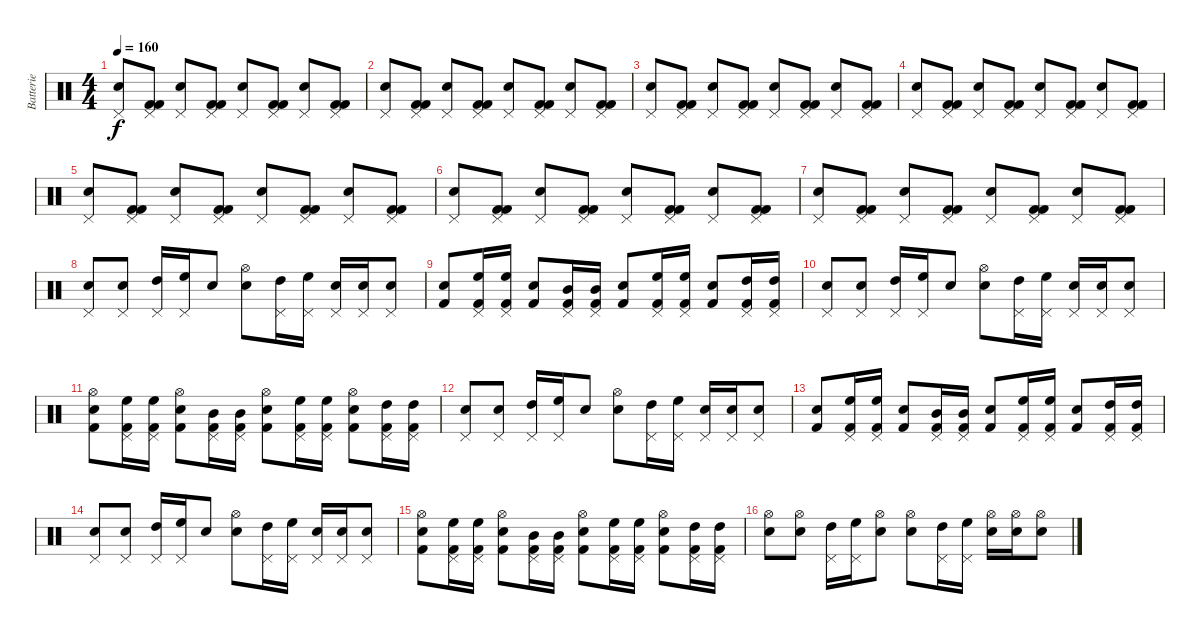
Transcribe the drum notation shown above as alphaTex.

\track ("Batterie" "Batterie") {instrument percussion}
\staff {score}
\articulation defaults
\ts (4 4)
\tempo 160
\clef neutral
\ks c
("Pedal Hi-Hat (hit)" "Snare (hit) 2").8{dy f} ("Kick (hit) 2" "Pedal Hi-Hat (hit)" "Kick (hit) 2").8 ("Pedal Hi-Hat (hit)" "Snare (hit) 2").8 ("Kick (hit) 2" "Pedal Hi-Hat (hit)" "Kick (hit) 2").8 ("Pedal Hi-Hat (hit)" "Snare (hit) 2").8 ("Kick (hit) 2" "Pedal Hi-Hat (hit)" "Kick (hit) 2").8 ("Pedal Hi-Hat (hit)" "Snare (hit) 2").8 ("Kick (hit) 2" "Pedal Hi-Hat (hit)" "Kick (hit) 2").8 |
("Pedal Hi-Hat (hit)" "Snare (hit) 2").8 ("Kick (hit) 2" "Pedal Hi-Hat (hit)" "Kick (hit) 2").8 ("Pedal Hi-Hat (hit)" "Snare (hit) 2").8 ("Kick (hit) 2" "Pedal Hi-Hat (hit)" "Kick (hit) 2").8 ("Pedal Hi-Hat (hit)" "Snare (hit) 2").8 ("Kick (hit) 2" "Pedal Hi-Hat (hit)" "Kick (hit) 2").8 ("Pedal Hi-Hat (hit)" "Snare (hit) 2").8 ("Kick (hit) 2" "Pedal Hi-Hat (hit)" "Kick (hit) 2").8 |
("Pedal Hi-Hat (hit)" "Snare (hit) 2").8 ("Kick (hit) 2" "Pedal Hi-Hat (hit)" "Kick (hit) 2").8 ("Pedal Hi-Hat (hit)" "Snare (hit) 2").8 ("Kick (hit) 2" "Pedal Hi-Hat (hit)" "Kick (hit) 2").8 ("Pedal Hi-Hat (hit)" "Snare (hit) 2").8 ("Kick (hit) 2" "Pedal Hi-Hat (hit)" "Kick (hit) 2").8 ("Pedal Hi-Hat (hit)" "Snare (hit) 2").8 ("Kick (hit) 2" "Pedal Hi-Hat (hit)" "Kick (hit) 2").8 |
("Pedal Hi-Hat (hit)" "Snare (hit) 2").8 ("Kick (hit) 2" "Pedal Hi-Hat (hit)" "Kick (hit) 2").8 ("Pedal Hi-Hat (hit)" "Snare (hit) 2").8 ("Kick (hit) 2" "Pedal Hi-Hat (hit)" "Kick (hit) 2").8 ("Pedal Hi-Hat (hit)" "Snare (hit) 2").8 ("Kick (hit) 2" "Pedal Hi-Hat (hit)" "Kick (hit) 2").8 ("Pedal Hi-Hat (hit)" "Snare (hit) 2").8 ("Kick (hit) 2" "Pedal Hi-Hat (hit)" "Kick (hit) 2").8 |
("Pedal Hi-Hat (hit)" "Snare (hit) 2").8 ("Kick (hit) 2" "Pedal Hi-Hat (hit)" "Kick (hit) 2").8 ("Pedal Hi-Hat (hit)" "Snare (hit) 2").8 ("Kick (hit) 2" "Pedal Hi-Hat (hit)" "Kick (hit) 2").8 ("Pedal Hi-Hat (hit)" "Snare (hit) 2").8 ("Kick (hit) 2" "Pedal Hi-Hat (hit)" "Kick (hit) 2").8 ("Pedal Hi-Hat (hit)" "Snare (hit) 2").8 ("Kick (hit) 2" "Pedal Hi-Hat (hit)" "Kick (hit) 2").8 |
("Pedal Hi-Hat (hit)" "Snare (hit) 2").8 ("Kick (hit) 2" "Pedal Hi-Hat (hit)" "Kick (hit) 2").8 ("Pedal Hi-Hat (hit)" "Snare (hit) 2").8 ("Kick (hit) 2" "Pedal Hi-Hat (hit)" "Kick (hit) 2").8 ("Pedal Hi-Hat (hit)" "Snare (hit) 2").8 ("Kick (hit) 2" "Pedal Hi-Hat (hit)" "Kick (hit) 2").8 ("Pedal Hi-Hat (hit)" "Snare (hit) 2").8 ("Kick (hit) 2" "Pedal Hi-Hat (hit)" "Kick (hit) 2").8 |
("Pedal Hi-Hat (hit)" "Snare (hit) 2").8 ("Kick (hit) 2" "Pedal Hi-Hat (hit)" "Kick (hit) 2").8 ("Pedal Hi-Hat (hit)" "Snare (hit) 2").8 ("Kick (hit) 2" "Pedal Hi-Hat (hit)" "Kick (hit) 2").8 ("Pedal Hi-Hat (hit)" "Snare (hit) 2").8 ("Kick (hit) 2" "Pedal Hi-Hat (hit)" "Kick (hit) 2").8 ("Pedal Hi-Hat (hit)" "Snare (hit) 2").8 ("Kick (hit) 2" "Pedal Hi-Hat (hit)" "Kick (hit) 2").8 |
("Pedal Hi-Hat (hit)" "Snare (hit) 2").8 ("Pedal Hi-Hat (hit)" "Snare (hit) 2").8 ("Pedal Hi-Hat (hit)" "High Tom (hit)").16 ("Pedal Hi-Hat (hit)" "High Floor Tom (hit)").16 "Snare (hit) 2".8 ("Hi-Hat (open)" "Snare (hit) 2").8 ("Pedal Hi-Hat (hit)" "High Tom (hit)").16 ("Pedal Hi-Hat (hit)" "High Floor Tom (hit)").16 ("Pedal Hi-Hat (hit)" "Snare (hit) 2").16 ("Pedal Hi-Hat (hit)" "Snare (hit) 2").16 ("Pedal Hi-Hat (hit)" "Snare (hit) 2").8 |
("Snare (hit) 2" "Kick (hit) 2").8 ("Pedal Hi-Hat (hit)" "High Floor Tom (hit)" "Kick (hit) 2").16 ("Pedal Hi-Hat (hit)" "High Floor Tom (hit)" "Kick (hit) 2").16 ("Snare (hit) 2" "Kick (hit) 2").8 ("Pedal Hi-Hat (hit)" "Mid Tom (hit)" "Kick (hit) 2").16 ("Pedal Hi-Hat (hit)" "Mid Tom (hit)" "Kick (hit) 2").16 ("Snare (hit) 2" "Kick (hit) 2").8 ("Pedal Hi-Hat (hit)" "High Floor Tom (hit)" "Kick (hit) 2").16 ("Pedal Hi-Hat (hit)" "High Floor Tom (hit)" "Kick (hit) 2").16 ("Snare (hit) 2" "Kick (hit) 2").8 ("Pedal Hi-Hat (hit)" "High Tom (hit)" "Kick (hit) 2").16 ("Pedal Hi-Hat (hit)" "High Tom (hit)" "Kick (hit) 2").16 |
("Pedal Hi-Hat (hit)" "Snare (hit) 2").8 ("Pedal Hi-Hat (hit)" "Snare (hit) 2").8 ("Pedal Hi-Hat (hit)" "High Tom (hit)").16 ("Pedal Hi-Hat (hit)" "High Floor Tom (hit)").16 "Snare (hit) 2".8 ("Hi-Hat (open)" "Snare (hit) 2").8 ("Pedal Hi-Hat (hit)" "High Tom (hit)").16 ("Pedal Hi-Hat (hit)" "High Floor Tom (hit)").16 ("Pedal Hi-Hat (hit)" "Snare (hit) 2").16 ("Pedal Hi-Hat (hit)" "Snare (hit) 2").16 ("Pedal Hi-Hat (hit)" "Snare (hit) 2").8 |
("Hi-Hat (open)" "Snare (hit) 2" "Kick (hit) 2").8 ("Pedal Hi-Hat (hit)" "High Floor Tom (hit)" "Kick (hit) 2").16 ("Pedal Hi-Hat (hit)" "High Floor Tom (hit)" "Kick (hit) 2").16 ("Hi-Hat (open)" "Snare (hit) 2" "Kick (hit) 2").8 ("Pedal Hi-Hat (hit)" "Mid Tom (hit)" "Kick (hit) 2").16 ("Pedal Hi-Hat (hit)" "Mid Tom (hit)" "Kick (hit) 2").16 ("Hi-Hat (open)" "Snare (hit) 2" "Kick (hit) 2").8 ("Pedal Hi-Hat (hit)" "High Floor Tom (hit)" "Kick (hit) 2").16 ("Pedal Hi-Hat (hit)" "High Floor Tom (hit)" "Kick (hit) 2").16 ("Hi-Hat (open)" "Snare (hit) 2" "Kick (hit) 2").8 ("Pedal Hi-Hat (hit)" "High Tom (hit)" "Kick (hit) 2").16 ("Pedal Hi-Hat (hit)" "High Tom (hit)" "Kick (hit) 2").16 |
("Pedal Hi-Hat (hit)" "Snare (hit) 2").8 ("Pedal Hi-Hat (hit)" "Snare (hit) 2").8 ("Pedal Hi-Hat (hit)" "High Tom (hit)").16 ("Pedal Hi-Hat (hit)" "High Floor Tom (hit)").16 "Snare (hit) 2".8 ("Hi-Hat (open)" "Snare (hit) 2").8 ("Pedal Hi-Hat (hit)" "High Tom (hit)").16 ("Pedal Hi-Hat (hit)" "High Floor Tom (hit)").16 ("Pedal Hi-Hat (hit)" "Snare (hit) 2").16 ("Pedal Hi-Hat (hit)" "Snare (hit) 2").16 ("Pedal Hi-Hat (hit)" "Snare (hit) 2").8 |
("Snare (hit) 2" "Kick (hit) 2").8 ("Pedal Hi-Hat (hit)" "High Floor Tom (hit)" "Kick (hit) 2").16 ("Pedal Hi-Hat (hit)" "High Floor Tom (hit)" "Kick (hit) 2").16 ("Snare (hit) 2" "Kick (hit) 2").8 ("Pedal Hi-Hat (hit)" "Mid Tom (hit)" "Kick (hit) 2").16 ("Pedal Hi-Hat (hit)" "Mid Tom (hit)" "Kick (hit) 2").16 ("Snare (hit) 2" "Kick (hit) 2").8 ("Pedal Hi-Hat (hit)" "High Floor Tom (hit)" "Kick (hit) 2").16 ("Pedal Hi-Hat (hit)" "High Floor Tom (hit)" "Kick (hit) 2").16 ("Snare (hit) 2" "Kick (hit) 2").8 ("Pedal Hi-Hat (hit)" "High Tom (hit)" "Kick (hit) 2").16 ("Pedal Hi-Hat (hit)" "High Tom (hit)" "Kick (hit) 2").16 |
("Pedal Hi-Hat (hit)" "Snare (hit) 2").8 ("Pedal Hi-Hat (hit)" "Snare (hit) 2").8 ("Pedal Hi-Hat (hit)" "High Tom (hit)").16 ("Pedal Hi-Hat (hit)" "High Floor Tom (hit)").16 "Snare (hit) 2".8 ("Hi-Hat (open)" "Snare (hit) 2").8 ("Pedal Hi-Hat (hit)" "High Tom (hit)").16 ("Pedal Hi-Hat (hit)" "High Floor Tom (hit)").16 ("Pedal Hi-Hat (hit)" "Snare (hit) 2").16 ("Pedal Hi-Hat (hit)" "Snare (hit) 2").16 ("Pedal Hi-Hat (hit)" "Snare (hit) 2").8 |
("Hi-Hat (open)" "Snare (hit) 2" "Kick (hit) 2").8 ("Pedal Hi-Hat (hit)" "High Floor Tom (hit)" "Kick (hit) 2").16 ("Pedal Hi-Hat (hit)" "High Floor Tom (hit)" "Kick (hit) 2").16 ("Hi-Hat (open)" "Snare (hit) 2" "Kick (hit) 2").8 ("Pedal Hi-Hat (hit)" "Mid Tom (hit)" "Kick (hit) 2").16 ("Pedal Hi-Hat (hit)" "Mid Tom (hit)" "Kick (hit) 2").16 ("Hi-Hat (open)" "Snare (hit) 2" "Kick (hit) 2").8 ("Pedal Hi-Hat (hit)" "High Floor Tom (hit)" "Kick (hit) 2").16 ("Pedal Hi-Hat (hit)" "High Floor Tom (hit)" "Kick (hit) 2").16 ("Hi-Hat (open)" "Snare (hit) 2" "Kick (hit) 2").8 ("Pedal Hi-Hat (hit)" "High Tom (hit)" "Kick (hit) 2").16 ("Pedal Hi-Hat (hit)" "High Tom (hit)" "Kick (hit) 2").16 |
("Hi-Hat (open)" "Snare (hit) 2").8 ("Hi-Hat (open)" "Snare (hit) 2").8 ("Pedal Hi-Hat (hit)" "High Tom (hit)").16 ("Pedal Hi-Hat (hit)" "High Floor Tom (hit)").16 ("Hi-Hat (open)" "Snare (hit) 2").8 ("Hi-Hat (open)" "Snare (hit) 2").8 ("Pedal Hi-Hat (hit)" "High Tom (hit)").16 ("Pedal Hi-Hat (hit)" "High Floor Tom (hit)").16 ("Hi-Hat (open)" "Snare (hit) 2").16 ("Hi-Hat (open)" "Snare (hit) 2").16 ("Hi-Hat (open)" "Snare (hit) 2").8
